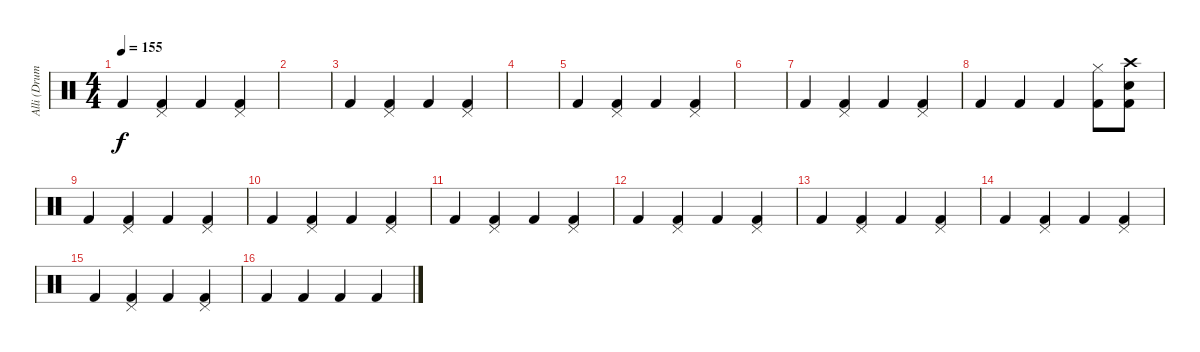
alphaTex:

\track ("Alli (Drums)" "Alli (Drum") {instrument percussion}
\staff {score}
\articulation defaults
\ts (4 4)
\tempo 155
\clef neutral
\ks c "Kick (hit) 2".4{dy f}
("Pedal Hi-Hat (hit)" "Kick (hit) 2").4 "Kick (hit) 2".4 ("Pedal Hi-Hat (hit)" "Kick (hit) 2").4 |
|
"Kick (hit) 2".4 ("Pedal Hi-Hat (hit)" "Kick (hit) 2").4 "Kick (hit) 2".4 ("Pedal Hi-Hat (hit)" "Kick (hit) 2").4 |
|
"Kick (hit) 2".4 ("Pedal Hi-Hat (hit)" "Kick (hit) 2").4 "Kick (hit) 2".4 ("Pedal Hi-Hat (hit)" "Kick (hit) 2").4 |
|
"Kick (hit) 2".4 ("Pedal Hi-Hat (hit)" "Kick (hit) 2").4 "Kick (hit) 2".4 ("Pedal Hi-Hat (hit)" "Kick (hit) 2").4 |
"Kick (hit) 2".4 "Kick (hit) 2".4 "Kick (hit) 2".4 ("Hi-Hat (closed)" "Kick (hit) 2").8 ("Crash high (hit)" "Electric Snare (hit)" "Kick (hit) 2").8 |
"Kick (hit) 2".4 ("Pedal Hi-Hat (hit)" "Kick (hit) 2").4 "Kick (hit) 2".4 ("Pedal Hi-Hat (hit)" "Kick (hit) 2").4 |
"Kick (hit) 2".4 ("Pedal Hi-Hat (hit)" "Kick (hit) 2").4 "Kick (hit) 2".4 ("Pedal Hi-Hat (hit)" "Kick (hit) 2").4 |
"Kick (hit) 2".4 ("Pedal Hi-Hat (hit)" "Kick (hit) 2").4 "Kick (hit) 2".4 ("Pedal Hi-Hat (hit)" "Kick (hit) 2").4 |
"Kick (hit) 2".4 ("Pedal Hi-Hat (hit)" "Kick (hit) 2").4 "Kick (hit) 2".4 ("Pedal Hi-Hat (hit)" "Kick (hit) 2").4 |
"Kick (hit) 2".4 ("Pedal Hi-Hat (hit)" "Kick (hit) 2").4 "Kick (hit) 2".4 ("Pedal Hi-Hat (hit)" "Kick (hit) 2").4 |
"Kick (hit) 2".4 ("Pedal Hi-Hat (hit)" "Kick (hit) 2").4 "Kick (hit) 2".4 ("Pedal Hi-Hat (hit)" "Kick (hit) 2").4 |
"Kick (hit) 2".4 ("Pedal Hi-Hat (hit)" "Kick (hit) 2").4 "Kick (hit) 2".4 ("Pedal Hi-Hat (hit)" "Kick (hit) 2").4 |
"Kick (hit) 2".4 "Kick (hit) 2".4 "Kick (hit) 2".4 "Kick (hit) 2".4
